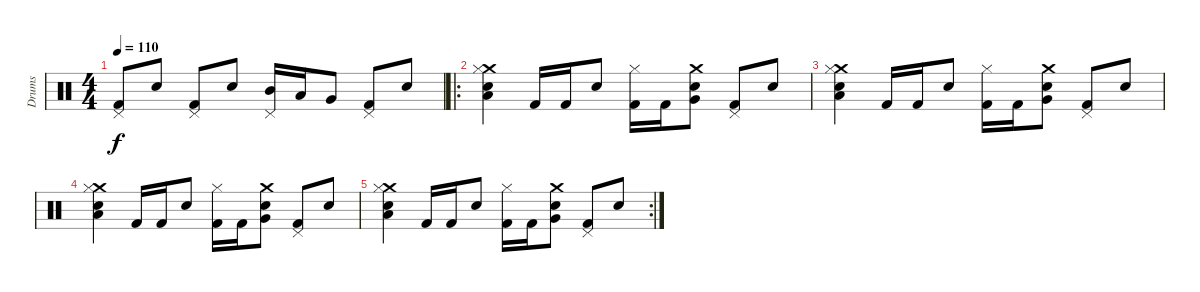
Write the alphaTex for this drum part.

\track ("Drums" "Drums") {instrument percussion}
\staff {score}
\articulation defaults
\ts (4 4)
\tempo 110
\clef neutral
\ks c
("Pedal Hi-Hat (hit)" "Kick (hit) 2").8{dy f} "Snare (hit) 2".8 ("Pedal Hi-Hat (hit)" "Kick (hit) 2").8 "Snare (hit) 2".8 ("Pedal Hi-Hat (hit)" "Mid Tom (hit)").16 "Low Tom (hit)".16 "Very Low Tom (hit)".8 ("Pedal Hi-Hat (hit)" "Kick (hit) 2").8 "Snare (hit) 2".8 |
\ro
("Crash medium (hit)" "Snare (hit) 2" "Low Tom (hit)" "Hi-Hat (closed)").4 "Kick (hit) 2".16 "Kick (hit) 2".16 "Snare (hit) 2".8 ("Hi-Hat (closed)" "Kick (hit) 2").16 "Kick (hit) 2".16 ("Crash medium (hit)" "Snare (hit) 2" "Very Low Tom (hit)").8 ("Pedal Hi-Hat (hit)" "Kick (hit) 2").8 "Snare (hit) 2".8 |
("Crash medium (hit)" "Snare (hit) 2" "Low Tom (hit)" "Hi-Hat (closed)").4 "Kick (hit) 2".16 "Kick (hit) 2".16 "Snare (hit) 2".8 ("Hi-Hat (closed)" "Kick (hit) 2").16 "Kick (hit) 2".16 ("Crash medium (hit)" "Snare (hit) 2" "Very Low Tom (hit)").8 ("Pedal Hi-Hat (hit)" "Kick (hit) 2").8 "Snare (hit) 2".8 |
("Crash medium (hit)" "Snare (hit) 2" "Low Tom (hit)" "Hi-Hat (closed)").4 "Kick (hit) 2".16 "Kick (hit) 2".16 "Snare (hit) 2".8 ("Hi-Hat (closed)" "Kick (hit) 2").16 "Kick (hit) 2".16 ("Crash medium (hit)" "Snare (hit) 2" "Very Low Tom (hit)").8 ("Pedal Hi-Hat (hit)" "Kick (hit) 2").8 "Snare (hit) 2".8 |
\rc 2
("Crash medium (hit)" "Snare (hit) 2" "Low Tom (hit)" "Hi-Hat (closed)").4 "Kick (hit) 2".16 "Kick (hit) 2".16 "Snare (hit) 2".8 ("Hi-Hat (closed)" "Kick (hit) 2").16 "Kick (hit) 2".16 ("Crash medium (hit)" "Snare (hit) 2" "Very Low Tom (hit)").8 ("Pedal Hi-Hat (hit)" "Kick (hit) 2").8 "Snare (hit) 2".8
